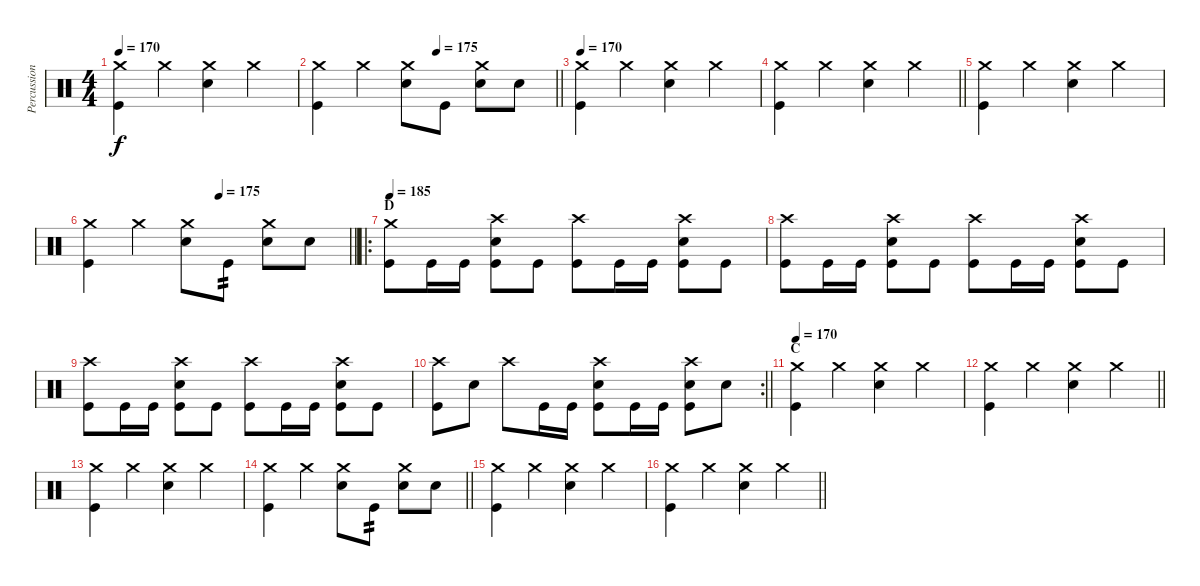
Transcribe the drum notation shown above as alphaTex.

\track ("Percussion" "Percussion") {instrument percussion}
\staff {score}
\articulation defaults
\ts (4 4)
\tempo 170
\clef neutral
\ks c
("Kick (hit)" "Crash medium (hit)").4{dy f} "Crash medium (hit)".4 ("Snare (hit) 2" "Crash medium (hit)").4 "Crash medium (hit)".4 |
\tempo (175 0.5)
\barLineRight lightlight
("Kick (hit)" "Crash medium (hit)").4 "Crash medium (hit)".4 ("Snare (hit) 2" "Crash medium (hit)").8 "Kick (hit)".8 ("Snare (hit) 2" "Crash medium (hit)").8 "Snare (hit) 2".8 |
\tempo 170
("Kick (hit)" "Crash medium (hit)").4 "Crash medium (hit)".4 ("Snare (hit) 2" "Crash medium (hit)").4 "Crash medium (hit)".4 |
\barLineRight lightlight
("Kick (hit)" "Crash medium (hit)").4 "Crash medium (hit)".4 ("Snare (hit) 2" "Crash medium (hit)").4 "Crash medium (hit)".4 |
("Kick (hit)" "Crash medium (hit)").4 "Crash medium (hit)".4 ("Snare (hit) 2" "Crash medium (hit)").4 "Crash medium (hit)".4 |
\tempo (175 0.5)
\barLineRight lightlight
("Kick (hit)" "Crash medium (hit)").4 "Crash medium (hit)".4 ("Snare (hit) 2" "Crash medium (hit)").8 "Kick (hit)".8{tp 2} ("Snare (hit) 2" "Crash medium (hit)").8 "Snare (hit) 2".8 |
\ro
\section ("" "D")
\tempo 185
("Kick (hit)" "Crash medium (hit)").8 "Kick (hit)".16 "Kick (hit)".16 ("Kick (hit)" "Snare (hit) 2" "Crash high (hit)").8 "Kick (hit)".8 ("Kick (hit)" "Crash high (hit)").8 "Kick (hit)".16 "Kick (hit)".16 ("Kick (hit)" "Snare (hit) 2" "Crash high (hit)").8 "Kick (hit)".8 |
("Kick (hit)" "Crash high (hit)").8 "Kick (hit)".16 "Kick (hit)".16 ("Kick (hit)" "Snare (hit) 2" "Crash high (hit)").8 "Kick (hit)".8 ("Kick (hit)" "Crash high (hit)").8 "Kick (hit)".16 "Kick (hit)".16 ("Kick (hit)" "Snare (hit) 2" "Crash high (hit)").8 "Kick (hit)".8 |
("Kick (hit)" "Crash high (hit)").8 "Kick (hit)".16 "Kick (hit)".16 ("Kick (hit)" "Snare (hit) 2" "Crash high (hit)").8 "Kick (hit)".8 ("Kick (hit)" "Crash high (hit)").8 "Kick (hit)".16 "Kick (hit)".16 ("Kick (hit)" "Snare (hit) 2" "Crash high (hit)").8 "Kick (hit)".8 |
\rc 2
\barLineRight lightlight
("Kick (hit)" "Crash high (hit)").8 "Snare (hit) 2".8 "Crash high (hit)".8 "Kick (hit)".16 "Kick (hit)".16 ("Kick (hit)" "Snare (hit) 2" "Crash high (hit)").8 "Kick (hit)".16 "Kick (hit)".16 ("Kick (hit)" "Snare (hit) 2" "Crash high (hit)").8 "Snare (hit) 2".8 |
\section ("" "C")
\tempo 170
("Kick (hit)" "Crash medium (hit)").4 "Crash medium (hit)".4 ("Snare (hit) 2" "Crash medium (hit)").4 "Crash medium (hit)".4 |
\barLineRight lightlight
("Kick (hit)" "Crash medium (hit)").4 "Crash medium (hit)".4 ("Snare (hit) 2" "Crash medium (hit)").4 "Crash medium (hit)".4 |
("Kick (hit)" "Crash medium (hit)").4 "Crash medium (hit)".4 ("Snare (hit) 2" "Crash medium (hit)").4 "Crash medium (hit)".4 |
\barLineRight lightlight
("Kick (hit)" "Crash medium (hit)").4 "Crash medium (hit)".4 ("Snare (hit) 2" "Crash medium (hit)").8 "Kick (hit)".8{tp 2} ("Snare (hit) 2" "Crash medium (hit)").8 "Snare (hit) 2".8 |
("Kick (hit)" "Crash medium (hit)").4 "Crash medium (hit)".4 ("Snare (hit) 2" "Crash medium (hit)").4 "Crash medium (hit)".4 |
\barLineRight lightlight
("Kick (hit)" "Crash medium (hit)").4 "Crash medium (hit)".4 ("Snare (hit) 2" "Crash medium (hit)").4 "Crash medium (hit)".4
